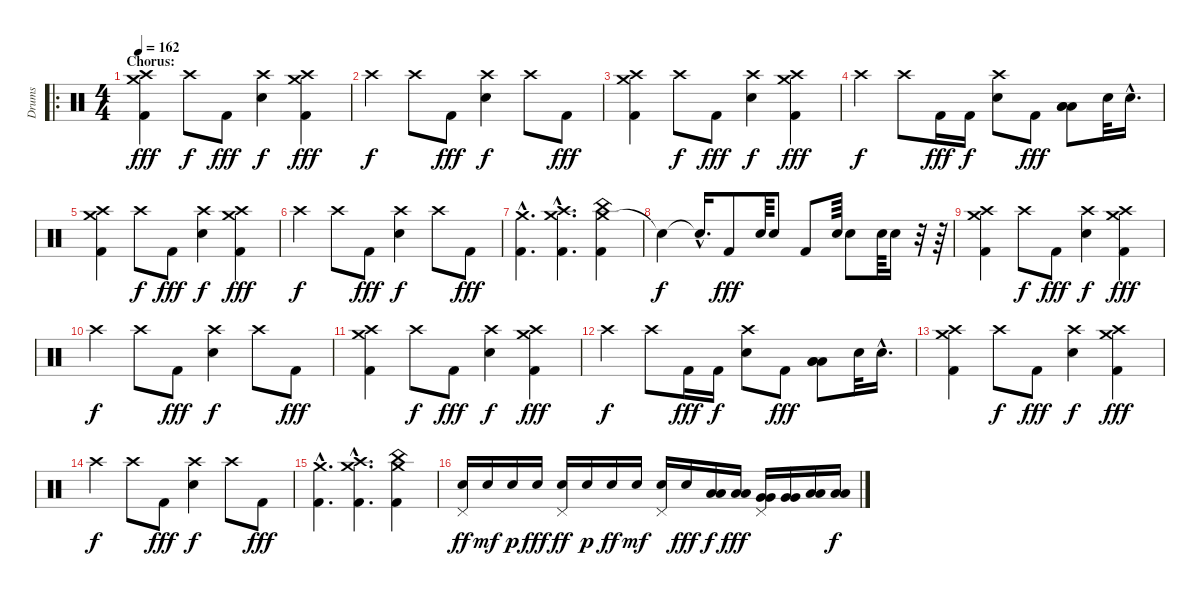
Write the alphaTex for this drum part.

\track ("Drums" "Drums") {instrument percussion}
\staff {score}
\articulation defaults
\ro
\ts (4 4)
\section ("" "Chorus:")
\tempo 162
\clef neutral
\ks c
("Crash high (hit)" "Crash medium (hit)" "Kick (hit) 2").4{dy fff} "Crash high (hit)".8{dy f} "Kick (hit) 2".8{dy fff} ("Crash high (hit)" "Snare (hit) 2").4{dy f} ("Crash medium (hit)" "Crash high (hit)" "Kick (hit) 2").4{dy fff} |
"Crash high (hit)".4{dy f} "Crash high (hit)".8 "Kick (hit) 2".8{dy fff} ("Crash high (hit)" "Snare (hit) 2").4{dy f} "Crash high (hit)".8 "Kick (hit) 2".8{dy fff} |
("Crash high (hit)" "Crash medium (hit)" "Kick (hit) 2").4 "Crash high (hit)".8{dy f} "Kick (hit) 2".8{dy fff} ("Crash high (hit)" "Snare (hit) 2").4{dy f} ("Crash medium (hit)" "Crash high (hit)" "Kick (hit) 2").4{dy fff} |
"Crash high (hit)".4{dy f} "Crash high (hit)".8 "Kick (hit) 2".16{dy fff} "Kick (hit) 2".16{dy f} ("Crash high (hit)" "Snare (hit) 2").8 "Kick (hit) 2".8{dy fff} ("Low Floor Tom (hit)" "Low Floor Tom (hit)" "Low Tom (hit)").8 "Snare (hit) 2".32 "Snare (hit) 2"{hac}.16{d} |
("Crash high (hit)" "Crash medium (hit)" "Kick (hit) 2").4 "Crash high (hit)".8{dy f} "Kick (hit) 2".8{dy fff} ("Crash high (hit)" "Snare (hit) 2").4{dy f} ("Crash medium (hit)" "Crash high (hit)" "Kick (hit) 2").4{dy fff} |
"Crash high (hit)".4{dy f} "Crash high (hit)".8 "Kick (hit) 2".8{dy fff} ("Crash high (hit)" "Snare (hit) 2").4{dy f} "Crash high (hit)".8 "Kick (hit) 2".8{dy fff} |
("Crash medium (hit)"{hac} "Kick (hit) 2"{hac}).4{d} ("Crash high (hit)"{hac} "Crash medium (hit)"{hac} "Kick (hit) 2"{hac}).4{d} ("Crash medium (hit)" "China (hit)" "Kick (hit) 2").4 |
"Snare (hit)"{t}.4{dy f} "Snare (hit)"{hac t}.16{d} "Kick (hit) 2".8{dy fff} "Snare (hit) 2".64 "Snare (hit) 2".8 "Kick (hit) 2".8 "Snare (hit) 2".64 "Snare (hit) 2".8 "Snare (hit) 2".64 "Snare (hit) 2".16 r.32 r.64 |
("Crash high (hit)" "Crash medium (hit)" "Kick (hit) 2").4 "Crash high (hit)".8{dy f} "Kick (hit) 2".8{dy fff} ("Crash high (hit)" "Snare (hit) 2").4{dy f} ("Crash medium (hit)" "Crash high (hit)" "Kick (hit) 2").4{dy fff} |
"Crash high (hit)".4{dy f} "Crash high (hit)".8 "Kick (hit) 2".8{dy fff} ("Crash high (hit)" "Snare (hit) 2").4{dy f} "Crash high (hit)".8 "Kick (hit) 2".8{dy fff} |
("Crash high (hit)" "Crash medium (hit)" "Kick (hit) 2").4 "Crash high (hit)".8{dy f} "Kick (hit) 2".8{dy fff} ("Crash high (hit)" "Snare (hit) 2").4{dy f} ("Crash medium (hit)" "Crash high (hit)" "Kick (hit) 2").4{dy fff} |
"Crash high (hit)".4{dy f} "Crash high (hit)".8 "Kick (hit) 2".16{dy fff} "Kick (hit) 2".16{dy f} ("Crash high (hit)" "Snare (hit) 2").8 "Kick (hit) 2".8{dy fff} ("Low Floor Tom (hit)" "Low Floor Tom (hit)" "Low Tom (hit)").8 "Snare (hit) 2".32 "Snare (hit) 2"{hac}.16{d} |
("Crash high (hit)" "Crash medium (hit)" "Kick (hit) 2").4 "Crash high (hit)".8{dy f} "Kick (hit) 2".8{dy fff} ("Crash high (hit)" "Snare (hit) 2").4{dy f} ("Crash medium (hit)" "Crash high (hit)" "Kick (hit) 2").4{dy fff} |
"Crash high (hit)".4{dy f} "Crash high (hit)".8 "Kick (hit) 2".8{dy fff} ("Crash high (hit)" "Snare (hit) 2").4{dy f} "Crash high (hit)".8 "Kick (hit) 2".8{dy fff} |
("Crash medium (hit)"{hac} "Kick (hit) 2"{hac}).4{d} ("Crash high (hit)"{hac} "Crash medium (hit)"{hac} "Kick (hit) 2"{hac}).4{d} ("Crash medium (hit)" "China (hit)" "Kick (hit) 2").4 |
("Pedal Hi-Hat (hit)" "Snare (hit) 2").16{dy ff} "Snare (hit) 2".16{dy mf} "Snare (hit) 2".16{dy p} "Snare (hit) 2".16{dy fff} ("Pedal Hi-Hat (hit)" "Snare (hit) 2").16{dy ff} "Snare (hit) 2".16{dy p} "Snare (hit) 2".16{dy ff} "Snare (hit) 2".16{dy mf} ("Pedal Hi-Hat (hit)" "Snare (hit) 2").16 "Snare (hit) 2".16{dy fff} ("Low Tom (hit)" "Low Tom (hit)").16{dy f} ("Low Tom (hit)" "Low Tom (hit)").16{dy fff} ("Pedal Hi-Hat (hit)" "Very Low Tom (hit)" "Very Low Tom (hit)").16 ("Very Low Tom (hit)" "Very Low Tom (hit)").16 ("Low Floor Tom (hit)" "Low Floor Tom (hit)").16 ("Low Floor Tom (hit)" "Low Floor Tom (hit)").16{dy f}
